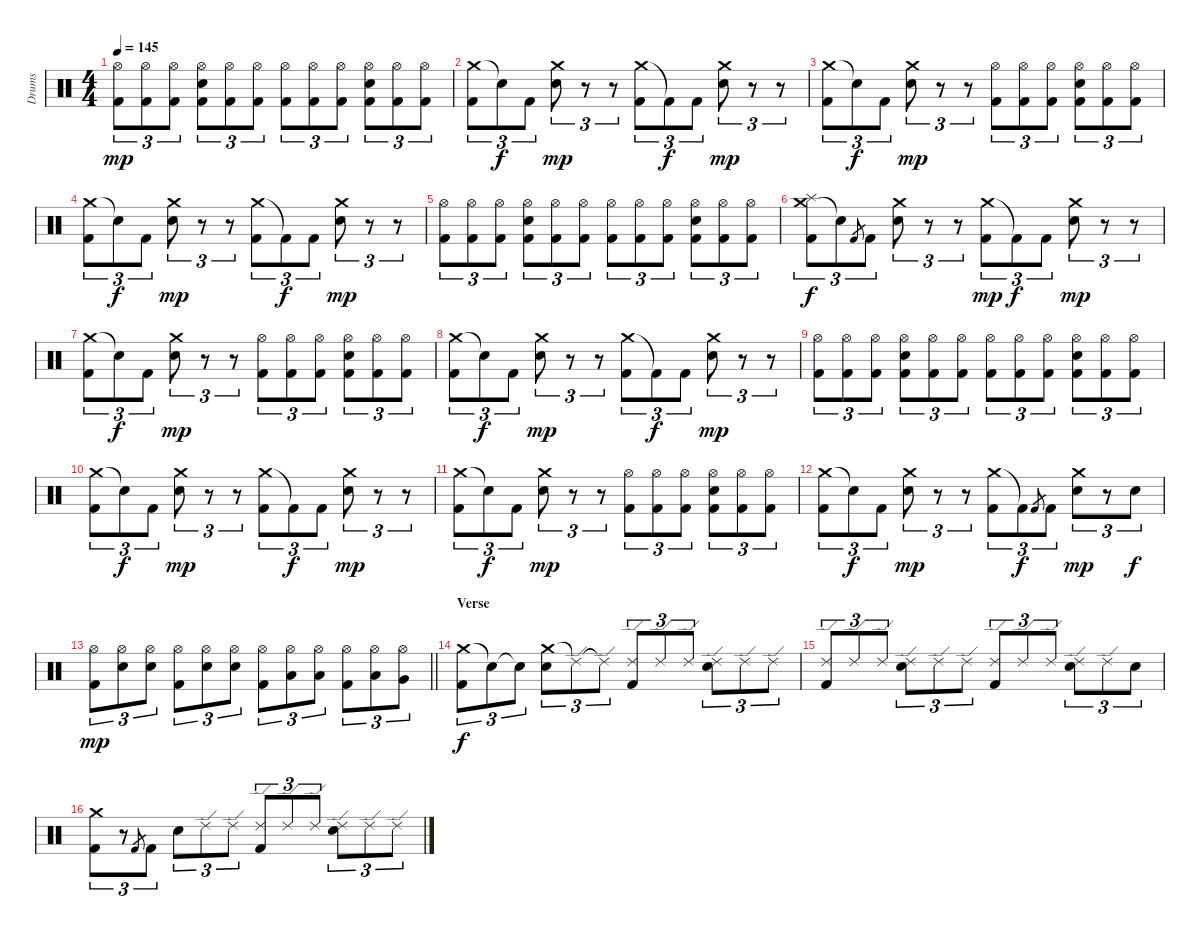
\track ("Drums" "Drums") {instrument percussion}
\staff {score}
\articulation defaults
\ts (4 4)
\tempo 145
\clef neutral
\ks c
("Hi-Hat (open)" "Kick (hit) 2").8{tu (3 2) dy mp} ("Hi-Hat (open)" "Kick (hit) 2").8{tu (3 2)} ("Hi-Hat (open)" "Kick (hit) 2").8{tu (3 2)} ("Hi-Hat (open)" "Snare (hit) 2" "Kick (hit) 2").8{tu (3 2)} ("Hi-Hat (open)" "Kick (hit) 2").8{tu (3 2)} ("Hi-Hat (open)" "Kick (hit) 2").8{tu (3 2)} ("Hi-Hat (open)" "Kick (hit) 2").8{tu (3 2)} ("Hi-Hat (open)" "Kick (hit) 2").8{tu (3 2)} ("Hi-Hat (open)" "Kick (hit) 2").8{tu (3 2)} ("Hi-Hat (open)" "Snare (hit) 2" "Kick (hit) 2").8{tu (3 2)} ("Hi-Hat (open)" "Kick (hit) 2").8{tu (3 2)} ("Hi-Hat (open)" "Kick (hit) 2").8{tu (3 2)} |
("Crash medium (hit)" "Kick (hit) 2").8{tu (3 2)} "Snare (hit)"{t}.8{tu (3 2) dy f} "Kick (hit) 2".8{tu (3 2)} ("Crash medium (hit)" "Snare (hit) 2").8{tu (3 2) dy mp} r.8{tu (3 2)} r.8{tu (3 2)} ("Crash medium (hit)" "Kick (hit) 2").8{tu (3 2)} "Kick (hit) 2"{t}.8{tu (3 2) dy f} "Kick (hit) 2".8{tu (3 2)} ("Crash medium (hit)" "Snare (hit) 2").8{tu (3 2) dy mp} r.8{tu (3 2)} r.8{tu (3 2)} |
("Crash medium (hit)" "Kick (hit) 2").8{tu (3 2)} "Snare (hit)"{t}.8{tu (3 2) dy f} "Kick (hit) 2".8{tu (3 2)} ("Crash medium (hit)" "Snare (hit) 2").8{tu (3 2) dy mp} r.8{tu (3 2)} r.8{tu (3 2)} ("Hi-Hat (open)" "Kick (hit) 2").8{tu (3 2)} ("Hi-Hat (open)" "Kick (hit) 2").8{tu (3 2)} ("Hi-Hat (open)" "Kick (hit) 2").8{tu (3 2)} ("Hi-Hat (open)" "Snare (hit) 2" "Kick (hit) 2").8{tu (3 2)} ("Hi-Hat (open)" "Kick (hit) 2").8{tu (3 2)} ("Hi-Hat (open)" "Kick (hit) 2").8{tu (3 2)} |
("Crash medium (hit)" "Kick (hit) 2").8{tu (3 2)} "Snare (hit)"{t}.8{tu (3 2) dy f} "Kick (hit) 2".8{tu (3 2)} ("Crash medium (hit)" "Snare (hit) 2").8{tu (3 2) dy mp} r.8{tu (3 2)} r.8{tu (3 2)} ("Crash medium (hit)" "Kick (hit) 2").8{tu (3 2)} "Kick (hit) 2"{t}.8{tu (3 2) dy f} "Kick (hit) 2".8{tu (3 2)} ("Crash medium (hit)" "Snare (hit) 2").8{tu (3 2) dy mp} r.8{tu (3 2)} r.8{tu (3 2)} |
("Hi-Hat (open)" "Kick (hit) 2").8{tu (3 2)} ("Hi-Hat (open)" "Kick (hit) 2").8{tu (3 2)} ("Hi-Hat (open)" "Kick (hit) 2").8{tu (3 2)} ("Hi-Hat (open)" "Snare (hit) 2" "Kick (hit) 2").8{tu (3 2)} ("Hi-Hat (open)" "Kick (hit) 2").8{tu (3 2)} ("Hi-Hat (open)" "Kick (hit) 2").8{tu (3 2)} ("Hi-Hat (open)" "Kick (hit) 2").8{tu (3 2)} ("Hi-Hat (open)" "Kick (hit) 2").8{tu (3 2)} ("Hi-Hat (open)" "Kick (hit) 2").8{tu (3 2)} ("Hi-Hat (open)" "Snare (hit) 2" "Kick (hit) 2").8{tu (3 2)} ("Hi-Hat (open)" "Kick (hit) 2").8{tu (3 2)} ("Hi-Hat (open)" "Kick (hit) 2").8{tu (3 2)} |
("Crash medium (hit)" "Splash (hit)" "Kick (hit) 2").8{tu (3 2) dy f} "Snare (hit)"{t}.8{tu (3 2)} "Kick (hit) 2".8{gr} "Kick (hit) 2".8{tu (3 2)} ("Crash medium (hit)" "Snare (hit) 2").8{tu (3 2)} r.8{tu (3 2)} r.8{tu (3 2)} ("Crash medium (hit)" "Kick (hit) 2").8{tu (3 2) dy mp} "Kick (hit) 2"{t}.8{tu (3 2) dy f} "Kick (hit) 2".8{tu (3 2)} ("Crash medium (hit)" "Snare (hit) 2").8{tu (3 2) dy mp} r.8{tu (3 2)} r.8{tu (3 2)} |
("Crash medium (hit)" "Kick (hit) 2").8{tu (3 2)} "Snare (hit)"{t}.8{tu (3 2) dy f} "Kick (hit) 2".8{tu (3 2)} ("Crash medium (hit)" "Snare (hit) 2").8{tu (3 2) dy mp} r.8{tu (3 2)} r.8{tu (3 2)} ("Hi-Hat (open)" "Kick (hit) 2").8{tu (3 2)} ("Hi-Hat (open)" "Kick (hit) 2").8{tu (3 2)} ("Hi-Hat (open)" "Kick (hit) 2").8{tu (3 2)} ("Hi-Hat (open)" "Snare (hit) 2" "Kick (hit) 2").8{tu (3 2)} ("Hi-Hat (open)" "Kick (hit) 2").8{tu (3 2)} ("Hi-Hat (open)" "Kick (hit) 2").8{tu (3 2)} |
("Crash medium (hit)" "Kick (hit) 2").8{tu (3 2)} "Snare (hit)"{t}.8{tu (3 2) dy f} "Kick (hit) 2".8{tu (3 2)} ("Crash medium (hit)" "Snare (hit) 2").8{tu (3 2) dy mp} r.8{tu (3 2)} r.8{tu (3 2)} ("Crash medium (hit)" "Kick (hit) 2").8{tu (3 2)} "Kick (hit) 2"{t}.8{tu (3 2) dy f} "Kick (hit) 2".8{tu (3 2)} ("Crash medium (hit)" "Snare (hit) 2").8{tu (3 2) dy mp} r.8{tu (3 2)} r.8{tu (3 2)} |
("Hi-Hat (open)" "Kick (hit) 2").8{tu (3 2)} ("Hi-Hat (open)" "Kick (hit) 2").8{tu (3 2)} ("Hi-Hat (open)" "Kick (hit) 2").8{tu (3 2)} ("Hi-Hat (open)" "Snare (hit) 2" "Kick (hit) 2").8{tu (3 2)} ("Hi-Hat (open)" "Kick (hit) 2").8{tu (3 2)} ("Hi-Hat (open)" "Kick (hit) 2").8{tu (3 2)} ("Hi-Hat (open)" "Kick (hit) 2").8{tu (3 2)} ("Hi-Hat (open)" "Kick (hit) 2").8{tu (3 2)} ("Hi-Hat (open)" "Kick (hit) 2").8{tu (3 2)} ("Hi-Hat (open)" "Snare (hit) 2" "Kick (hit) 2").8{tu (3 2)} ("Hi-Hat (open)" "Kick (hit) 2").8{tu (3 2)} ("Hi-Hat (open)" "Kick (hit) 2").8{tu (3 2)} |
("Crash medium (hit)" "Kick (hit) 2").8{tu (3 2)} "Snare (hit)"{t}.8{tu (3 2) dy f} "Kick (hit) 2".8{tu (3 2)} ("Crash medium (hit)" "Snare (hit) 2").8{tu (3 2) dy mp} r.8{tu (3 2)} r.8{tu (3 2)} ("Crash medium (hit)" "Kick (hit) 2").8{tu (3 2)} "Kick (hit) 2"{t}.8{tu (3 2) dy f} "Kick (hit) 2".8{tu (3 2)} ("Crash medium (hit)" "Snare (hit) 2").8{tu (3 2) dy mp} r.8{tu (3 2)} r.8{tu (3 2)} |
("Crash medium (hit)" "Kick (hit) 2").8{tu (3 2)} "Snare (hit)"{t}.8{tu (3 2) dy f} "Kick (hit) 2".8{tu (3 2)} ("Crash medium (hit)" "Snare (hit) 2").8{tu (3 2) dy mp} r.8{tu (3 2)} r.8{tu (3 2)} ("Hi-Hat (open)" "Kick (hit) 2").8{tu (3 2)} ("Hi-Hat (open)" "Kick (hit) 2").8{tu (3 2)} ("Hi-Hat (open)" "Kick (hit) 2").8{tu (3 2)} ("Hi-Hat (open)" "Snare (hit) 2" "Kick (hit) 2").8{tu (3 2)} ("Hi-Hat (open)" "Kick (hit) 2").8{tu (3 2)} ("Hi-Hat (open)" "Kick (hit) 2").8{tu (3 2)} |
("Crash medium (hit)" "Kick (hit) 2").8{tu (3 2)} "Snare (hit)"{t}.8{tu (3 2) dy f} "Kick (hit) 2".8{tu (3 2)} ("Crash medium (hit)" "Snare (hit) 2").8{tu (3 2) dy mp} r.8{tu (3 2)} r.8{tu (3 2)} ("Crash medium (hit)" "Kick (hit) 2").8{tu (3 2)} "Kick (hit) 2"{t}.8{tu (3 2) dy f} "Kick (hit) 2".8{gr} "Kick (hit) 2".8{tu (3 2)} ("Crash medium (hit)" "Snare (hit) 2").8{tu (3 2) dy mp} r.8{tu (3 2)} "Snare (hit) 2".8{tu (3 2) dy f} |
\barLineRight lightlight
("Hi-Hat (open)" "Kick (hit) 2").8{tu (3 2) dy mp} ("Hi-Hat (open)" "Snare (hit) 2").8{tu (3 2)} ("Hi-Hat (open)" "Snare (hit) 2").8{tu (3 2)} ("Hi-Hat (open)" "Kick (hit) 2").8{tu (3 2)} ("Hi-Hat (open)" "Snare (hit) 2").8{tu (3 2)} ("Hi-Hat (open)" "Snare (hit) 2").8{tu (3 2)} ("Hi-Hat (open)" "Kick (hit) 2").8{tu (3 2)} ("Hi-Hat (open)" "Low Tom (hit)").8{tu (3 2)} ("Hi-Hat (open)" "Low Tom (hit)").8{tu (3 2)} ("Hi-Hat (open)" "Kick (hit) 2").8{tu (3 2)} ("Hi-Hat (open)" "Low Tom (hit)").8{tu (3 2)} ("Hi-Hat (open)" "Very Low Tom (hit)").8{tu (3 2)} |
\section ("" "Verse")
("Crash medium (hit)" "Kick (hit) 2").8{tu (3 2) dy f} "Snare (hit)"{t}.8{tu (3 2)} "Snare (hit)"{t}.8{tu (3 2)} ("Crash medium (hit)" "Snare (hit) 2").8{tu (3 2)} "Ride (edge) 2"{t}.8{tu (3 2)} "Ride (edge) 2"{t}.8{tu (3 2)} ("Ride (edge) 2" "Kick (hit) 2").8{tu (3 2)} "Ride (edge) 2".8{tu (3 2)} "Ride (edge) 2".8{tu (3 2)} ("Ride (edge) 2" "Snare (hit) 2").8{tu (3 2)} "Ride (edge) 2".8{tu (3 2)} "Ride (edge) 2".8{tu (3 2)} |
("Ride (edge) 2" "Kick (hit) 2").8{tu (3 2)} "Ride (edge) 2".8{tu (3 2)} "Ride (edge) 2".8{tu (3 2)} ("Ride (edge) 2" "Snare (hit) 2").8{tu (3 2)} "Ride (edge) 2".8{tu (3 2)} "Ride (edge) 2".8{tu (3 2)} ("Ride (edge) 2" "Kick (hit) 2").8{tu (3 2)} "Ride (edge) 2".8{tu (3 2)} "Ride (edge) 2".8{tu (3 2)} ("Ride (edge) 2" "Snare (hit) 2").8{tu (3 2)} "Ride (edge) 2".8{tu (3 2)} "Snare (hit) 2".8{tu (3 2)} |
("Crash medium (hit)" "Kick (hit) 2").8{tu (3 2)} r.8{tu (3 2)} "Kick (hit) 2".8{gr} "Kick (hit) 2".8{tu (3 2)} "Snare (hit) 2".8{tu (3 2)} "Ride (edge) 2".8{tu (3 2)} "Ride (edge) 2".8{tu (3 2)} ("Ride (edge) 2" "Kick (hit) 2").8{tu (3 2)} "Ride (edge) 2".8{tu (3 2)} "Ride (edge) 2".8{tu (3 2)} ("Ride (edge) 2" "Snare (hit) 2").8{tu (3 2)} "Ride (edge) 2".8{tu (3 2)} "Ride (edge) 2".8{tu (3 2)}
